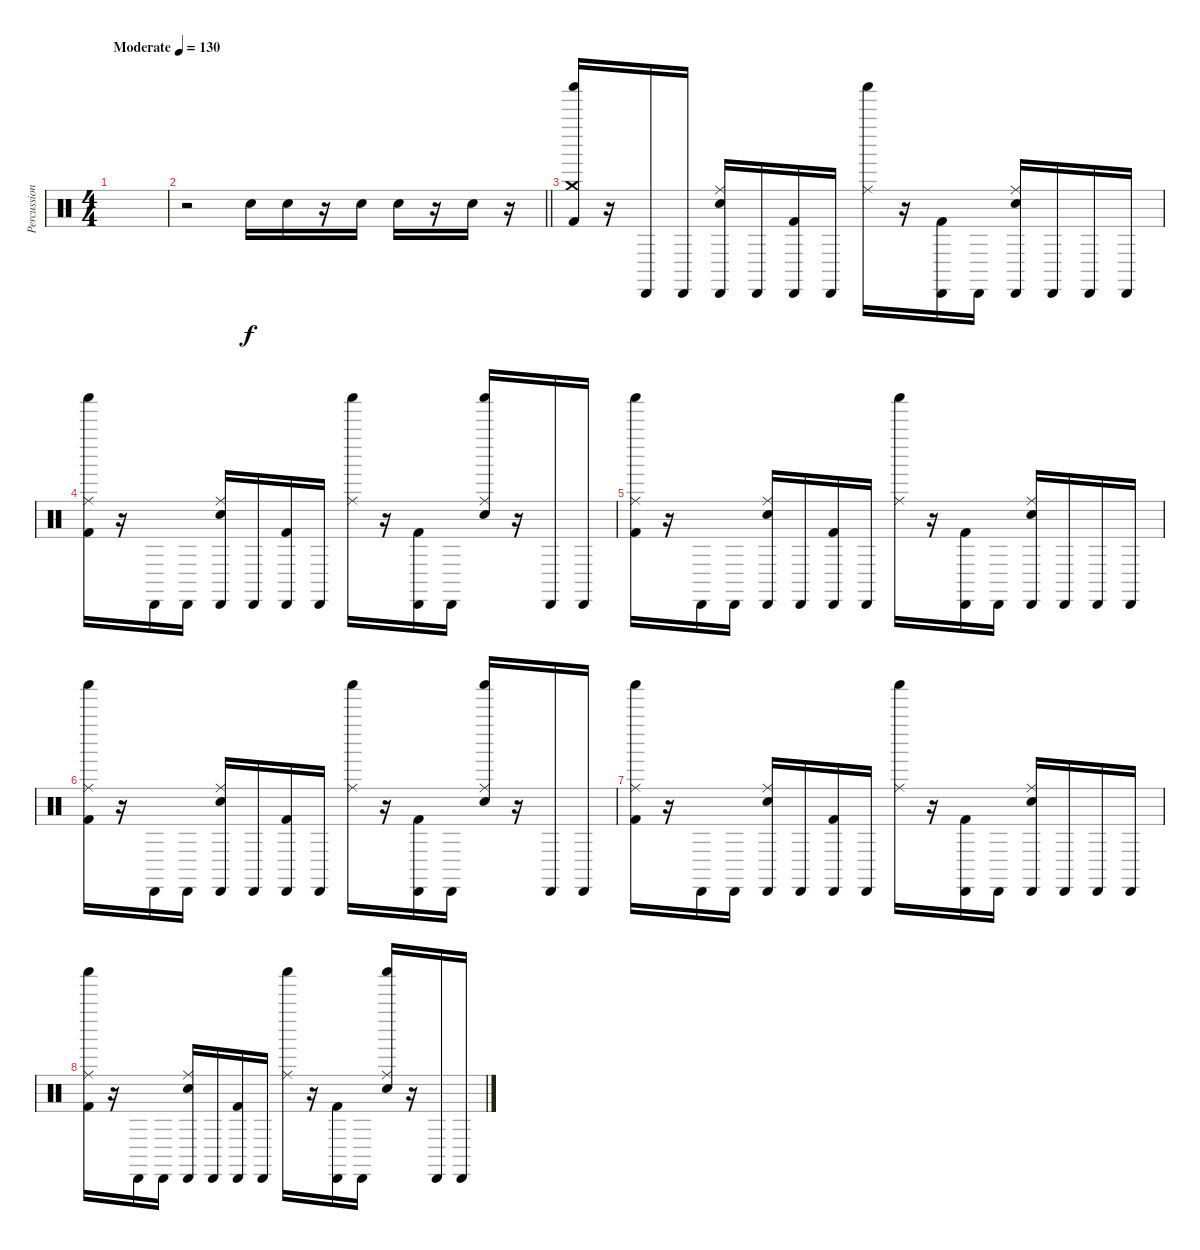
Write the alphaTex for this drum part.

\track ("Percussion" "Percussion") {instrument percussion}
\staff {score}
\articulation defaults
\ts (4 4)
\tempo (130 "Moderate")
\clef neutral
\ks c
|
\barLineRight lightlight
r.2 "Electric Snare (hit)".16 "Electric Snare (hit)".16 r.16 "Electric Snare (hit)".16 "Electric Snare (hit)".16 r.16 "Electric Snare (hit)".16 r.16 |
("Crash medium (hit)" "Shaker (hit)" "Kick (hit) 2").16 r.16 "Cabasa (hit)".16 "Cabasa (hit)".16 ("Ride (middle)" "Cabasa (hit)" "Electric Snare (hit)").16 "Cabasa (hit)".16 ("Cabasa (hit)" "Kick (hit) 2").16 "Cabasa (hit)".16 ("Ride (middle)" "Shaker (hit)").16 r.16 ("Cabasa (hit)" "Kick (hit) 2").16 "Cabasa (hit)".16 ("Ride (middle)" "Cabasa (hit)" "Electric Snare (hit)").16 "Cabasa (hit)".16 "Cabasa (hit)".16 "Cabasa (hit)".16 |
("Ride (middle)" "Shaker (hit)" "Kick (hit) 2").16 r.16 "Cabasa (hit)".16 "Cabasa (hit)".16 ("Ride (middle)" "Cabasa (hit)" "Electric Snare (hit)").16 "Cabasa (hit)".16 ("Cabasa (hit)" "Kick (hit) 2").16 "Cabasa (hit)".16 ("Ride (middle)" "Shaker (hit)").16 r.16 ("Cabasa (hit)" "Kick (hit) 2").16 "Cabasa (hit)".16 ("Ride (middle)" "Shaker (hit)" "Electric Snare (hit)").16 r.16 "Cabasa (hit)".16 "Cabasa (hit)".16 |
("Ride (middle)" "Shaker (hit)" "Kick (hit) 2").16 r.16 "Cabasa (hit)".16 "Cabasa (hit)".16 ("Ride (middle)" "Cabasa (hit)" "Electric Snare (hit)").16 "Cabasa (hit)".16 ("Cabasa (hit)" "Kick (hit) 2").16 "Cabasa (hit)".16 ("Ride (middle)" "Shaker (hit)").16 r.16 ("Cabasa (hit)" "Kick (hit) 2").16 "Cabasa (hit)".16 ("Ride (middle)" "Cabasa (hit)" "Electric Snare (hit)").16 "Cabasa (hit)".16 "Cabasa (hit)".16 "Cabasa (hit)".16 |
("Ride (middle)" "Shaker (hit)" "Kick (hit) 2").16 r.16 "Cabasa (hit)".16 "Cabasa (hit)".16 ("Ride (middle)" "Cabasa (hit)" "Electric Snare (hit)").16 "Cabasa (hit)".16 ("Cabasa (hit)" "Kick (hit) 2").16 "Cabasa (hit)".16 ("Ride (middle)" "Shaker (hit)").16 r.16 ("Cabasa (hit)" "Kick (hit) 2").16 "Cabasa (hit)".16 ("Ride (middle)" "Shaker (hit)" "Electric Snare (hit)").16 r.16 "Cabasa (hit)".16 "Cabasa (hit)".16 |
("Ride (middle)" "Shaker (hit)" "Kick (hit) 2").16 r.16 "Cabasa (hit)".16 "Cabasa (hit)".16 ("Ride (middle)" "Cabasa (hit)" "Electric Snare (hit)").16 "Cabasa (hit)".16 ("Cabasa (hit)" "Kick (hit) 2").16 "Cabasa (hit)".16 ("Ride (middle)" "Shaker (hit)").16 r.16 ("Cabasa (hit)" "Kick (hit) 2").16 "Cabasa (hit)".16 ("Ride (middle)" "Cabasa (hit)" "Electric Snare (hit)").16 "Cabasa (hit)".16 "Cabasa (hit)".16 "Cabasa (hit)".16 |
("Ride (middle)" "Shaker (hit)" "Kick (hit) 2").16 r.16 "Cabasa (hit)".16 "Cabasa (hit)".16 ("Ride (middle)" "Cabasa (hit)" "Electric Snare (hit)").16 "Cabasa (hit)".16 ("Cabasa (hit)" "Kick (hit) 2").16 "Cabasa (hit)".16 ("Ride (middle)" "Shaker (hit)").16 r.16 ("Cabasa (hit)" "Kick (hit) 2").16 "Cabasa (hit)".16 ("Ride (middle)" "Shaker (hit)" "Electric Snare (hit)").16 r.16 "Cabasa (hit)".16 "Cabasa (hit)".16
